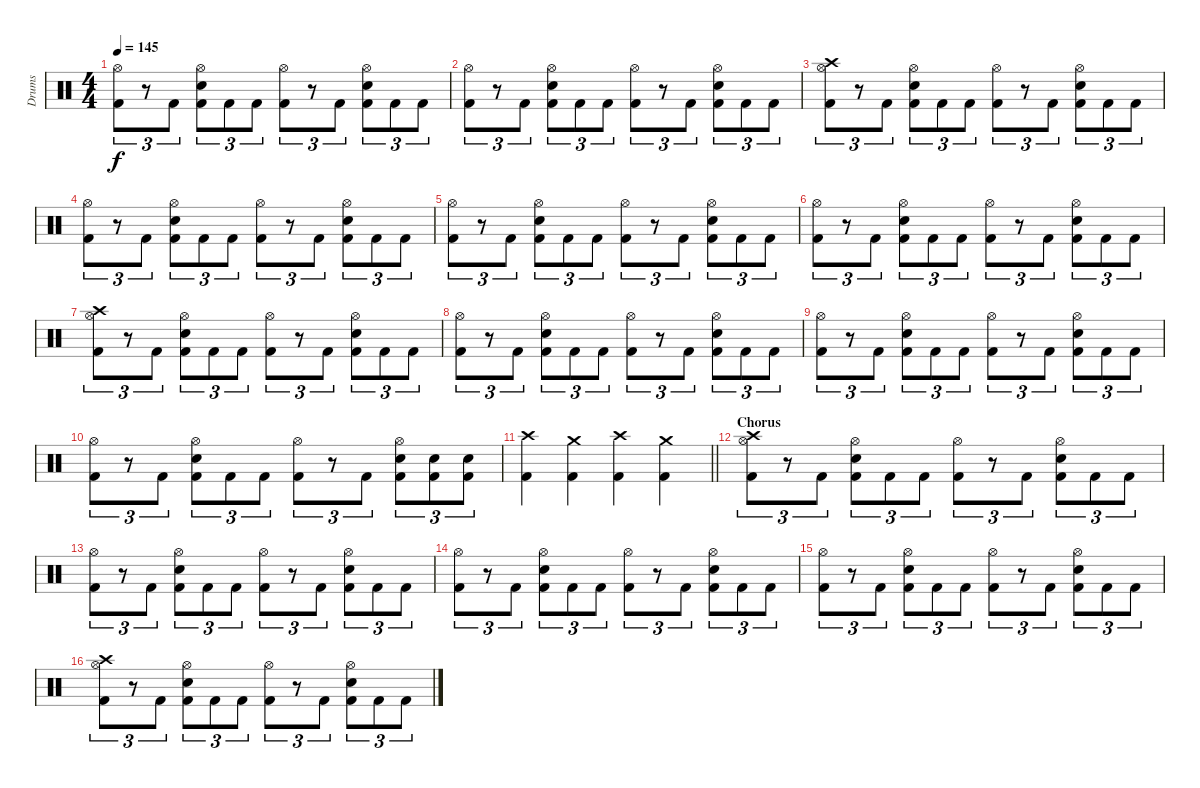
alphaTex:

\track ("Drums" "Drums") {instrument percussion}
\staff {score}
\articulation defaults
\ts (4 4)
\tempo 145
\clef neutral
\ks c
("Hi-Hat (open)" "Kick (hit) 2").8{tu (3 2) dy f} r.8{tu (3 2)} "Kick (hit) 2".8{tu (3 2)} ("Hi-Hat (open)" "Snare (hit) 2" "Kick (hit) 2").8{tu (3 2)} "Kick (hit) 2".8{tu (3 2)} "Kick (hit) 2".8{tu (3 2)} ("Hi-Hat (open)" "Kick (hit) 2").8{tu (3 2)} r.8{tu (3 2)} "Kick (hit) 2".8{tu (3 2)} ("Hi-Hat (open)" "Snare (hit) 2" "Kick (hit) 2").8{tu (3 2)} "Kick (hit) 2".8{tu (3 2)} "Kick (hit) 2".8{tu (3 2)} |
("Hi-Hat (open)" "Kick (hit) 2").8{tu (3 2)} r.8{tu (3 2)} "Kick (hit) 2".8{tu (3 2)} ("Hi-Hat (open)" "Snare (hit) 2" "Kick (hit) 2").8{tu (3 2)} "Kick (hit) 2".8{tu (3 2)} "Kick (hit) 2".8{tu (3 2)} ("Hi-Hat (open)" "Kick (hit) 2").8{tu (3 2)} r.8{tu (3 2)} "Kick (hit) 2".8{tu (3 2)} ("Hi-Hat (open)" "Snare (hit) 2" "Kick (hit) 2").8{tu (3 2)} "Kick (hit) 2".8{tu (3 2)} "Kick (hit) 2".8{tu (3 2)} |
("Crash high (hit)" "Hi-Hat (open)" "Kick (hit) 2").8{tu (3 2)} r.8{tu (3 2)} "Kick (hit) 2".8{tu (3 2)} ("Hi-Hat (open)" "Snare (hit) 2" "Kick (hit) 2").8{tu (3 2)} "Kick (hit) 2".8{tu (3 2)} "Kick (hit) 2".8{tu (3 2)} ("Hi-Hat (open)" "Kick (hit) 2").8{tu (3 2)} r.8{tu (3 2)} "Kick (hit) 2".8{tu (3 2)} ("Hi-Hat (open)" "Snare (hit) 2" "Kick (hit) 2").8{tu (3 2)} "Kick (hit) 2".8{tu (3 2)} "Kick (hit) 2".8{tu (3 2)} |
("Hi-Hat (open)" "Kick (hit) 2").8{tu (3 2)} r.8{tu (3 2)} "Kick (hit) 2".8{tu (3 2)} ("Hi-Hat (open)" "Snare (hit) 2" "Kick (hit) 2").8{tu (3 2)} "Kick (hit) 2".8{tu (3 2)} "Kick (hit) 2".8{tu (3 2)} ("Hi-Hat (open)" "Kick (hit) 2").8{tu (3 2)} r.8{tu (3 2)} "Kick (hit) 2".8{tu (3 2)} ("Hi-Hat (open)" "Snare (hit) 2" "Kick (hit) 2").8{tu (3 2)} "Kick (hit) 2".8{tu (3 2)} "Kick (hit) 2".8{tu (3 2)} |
("Hi-Hat (open)" "Kick (hit) 2").8{tu (3 2)} r.8{tu (3 2)} "Kick (hit) 2".8{tu (3 2)} ("Hi-Hat (open)" "Snare (hit) 2" "Kick (hit) 2").8{tu (3 2)} "Kick (hit) 2".8{tu (3 2)} "Kick (hit) 2".8{tu (3 2)} ("Hi-Hat (open)" "Kick (hit) 2").8{tu (3 2)} r.8{tu (3 2)} "Kick (hit) 2".8{tu (3 2)} ("Hi-Hat (open)" "Snare (hit) 2" "Kick (hit) 2").8{tu (3 2)} "Kick (hit) 2".8{tu (3 2)} "Kick (hit) 2".8{tu (3 2)} |
("Hi-Hat (open)" "Kick (hit) 2").8{tu (3 2)} r.8{tu (3 2)} "Kick (hit) 2".8{tu (3 2)} ("Hi-Hat (open)" "Snare (hit) 2" "Kick (hit) 2").8{tu (3 2)} "Kick (hit) 2".8{tu (3 2)} "Kick (hit) 2".8{tu (3 2)} ("Hi-Hat (open)" "Kick (hit) 2").8{tu (3 2)} r.8{tu (3 2)} "Kick (hit) 2".8{tu (3 2)} ("Hi-Hat (open)" "Snare (hit) 2" "Kick (hit) 2").8{tu (3 2)} "Kick (hit) 2".8{tu (3 2)} "Kick (hit) 2".8{tu (3 2)} |
("Crash high (hit)" "Hi-Hat (open)" "Kick (hit) 2").8{tu (3 2)} r.8{tu (3 2)} "Kick (hit) 2".8{tu (3 2)} ("Hi-Hat (open)" "Snare (hit) 2" "Kick (hit) 2").8{tu (3 2)} "Kick (hit) 2".8{tu (3 2)} "Kick (hit) 2".8{tu (3 2)} ("Hi-Hat (open)" "Kick (hit) 2").8{tu (3 2)} r.8{tu (3 2)} "Kick (hit) 2".8{tu (3 2)} ("Hi-Hat (open)" "Snare (hit) 2" "Kick (hit) 2").8{tu (3 2)} "Kick (hit) 2".8{tu (3 2)} "Kick (hit) 2".8{tu (3 2)} |
("Hi-Hat (open)" "Kick (hit) 2").8{tu (3 2)} r.8{tu (3 2)} "Kick (hit) 2".8{tu (3 2)} ("Hi-Hat (open)" "Snare (hit) 2" "Kick (hit) 2").8{tu (3 2)} "Kick (hit) 2".8{tu (3 2)} "Kick (hit) 2".8{tu (3 2)} ("Hi-Hat (open)" "Kick (hit) 2").8{tu (3 2)} r.8{tu (3 2)} "Kick (hit) 2".8{tu (3 2)} ("Hi-Hat (open)" "Snare (hit) 2" "Kick (hit) 2").8{tu (3 2)} "Kick (hit) 2".8{tu (3 2)} "Kick (hit) 2".8{tu (3 2)} |
("Hi-Hat (open)" "Kick (hit) 2").8{tu (3 2)} r.8{tu (3 2)} "Kick (hit) 2".8{tu (3 2)} ("Hi-Hat (open)" "Snare (hit) 2" "Kick (hit) 2").8{tu (3 2)} "Kick (hit) 2".8{tu (3 2)} "Kick (hit) 2".8{tu (3 2)} ("Hi-Hat (open)" "Kick (hit) 2").8{tu (3 2)} r.8{tu (3 2)} "Kick (hit) 2".8{tu (3 2)} ("Hi-Hat (open)" "Snare (hit) 2" "Kick (hit) 2").8{tu (3 2)} "Kick (hit) 2".8{tu (3 2)} "Kick (hit) 2".8{tu (3 2)} |
("Hi-Hat (open)" "Kick (hit) 2").8{tu (3 2)} r.8{tu (3 2)} "Kick (hit) 2".8{tu (3 2)} ("Hi-Hat (open)" "Snare (hit) 2" "Kick (hit) 2").8{tu (3 2)} "Kick (hit) 2".8{tu (3 2)} "Kick (hit) 2".8{tu (3 2)} ("Hi-Hat (open)" "Kick (hit) 2").8{tu (3 2)} r.8{tu (3 2)} "Kick (hit) 2".8{tu (3 2)} ("Hi-Hat (open)" "Snare (hit) 2" "Kick (hit) 2").8{tu (3 2)} ("Snare (hit) 2" "Kick (hit) 2").8{tu (3 2)} ("Snare (hit) 2" "Kick (hit) 2").8{tu (3 2)} |
\barLineRight lightlight
("Crash high (hit)" "Kick (hit) 2").4 ("Crash medium (hit)" "Kick (hit) 2").4 ("Crash high (hit)" "Kick (hit) 2").4 ("Crash medium (hit)" "Kick (hit) 2").4 |
\section ("" "Chorus")
("Crash high (hit)" "Hi-Hat (open)" "Kick (hit) 2").8{tu (3 2)} r.8{tu (3 2)} "Kick (hit) 2".8{tu (3 2)} ("Hi-Hat (open)" "Snare (hit) 2" "Kick (hit) 2").8{tu (3 2)} "Kick (hit) 2".8{tu (3 2)} "Kick (hit) 2".8{tu (3 2)} ("Hi-Hat (open)" "Kick (hit) 2").8{tu (3 2)} r.8{tu (3 2)} "Kick (hit) 2".8{tu (3 2)} ("Hi-Hat (open)" "Snare (hit) 2" "Kick (hit) 2").8{tu (3 2)} "Kick (hit) 2".8{tu (3 2)} "Kick (hit) 2".8{tu (3 2)} |
("Hi-Hat (open)" "Kick (hit) 2").8{tu (3 2)} r.8{tu (3 2)} "Kick (hit) 2".8{tu (3 2)} ("Hi-Hat (open)" "Snare (hit) 2" "Kick (hit) 2").8{tu (3 2)} "Kick (hit) 2".8{tu (3 2)} "Kick (hit) 2".8{tu (3 2)} ("Hi-Hat (open)" "Kick (hit) 2").8{tu (3 2)} r.8{tu (3 2)} "Kick (hit) 2".8{tu (3 2)} ("Hi-Hat (open)" "Snare (hit) 2" "Kick (hit) 2").8{tu (3 2)} "Kick (hit) 2".8{tu (3 2)} "Kick (hit) 2".8{tu (3 2)} |
("Hi-Hat (open)" "Kick (hit) 2").8{tu (3 2)} r.8{tu (3 2)} "Kick (hit) 2".8{tu (3 2)} ("Hi-Hat (open)" "Snare (hit) 2" "Kick (hit) 2").8{tu (3 2)} "Kick (hit) 2".8{tu (3 2)} "Kick (hit) 2".8{tu (3 2)} ("Hi-Hat (open)" "Kick (hit) 2").8{tu (3 2)} r.8{tu (3 2)} "Kick (hit) 2".8{tu (3 2)} ("Hi-Hat (open)" "Snare (hit) 2" "Kick (hit) 2").8{tu (3 2)} "Kick (hit) 2".8{tu (3 2)} "Kick (hit) 2".8{tu (3 2)} |
("Hi-Hat (open)" "Kick (hit) 2").8{tu (3 2)} r.8{tu (3 2)} "Kick (hit) 2".8{tu (3 2)} ("Hi-Hat (open)" "Snare (hit) 2" "Kick (hit) 2").8{tu (3 2)} "Kick (hit) 2".8{tu (3 2)} "Kick (hit) 2".8{tu (3 2)} ("Hi-Hat (open)" "Kick (hit) 2").8{tu (3 2)} r.8{tu (3 2)} "Kick (hit) 2".8{tu (3 2)} ("Hi-Hat (open)" "Snare (hit) 2" "Kick (hit) 2").8{tu (3 2)} "Kick (hit) 2".8{tu (3 2)} "Kick (hit) 2".8{tu (3 2)} |
("Crash high (hit)" "Hi-Hat (open)" "Kick (hit) 2").8{tu (3 2)} r.8{tu (3 2)} "Kick (hit) 2".8{tu (3 2)} ("Hi-Hat (open)" "Snare (hit) 2" "Kick (hit) 2").8{tu (3 2)} "Kick (hit) 2".8{tu (3 2)} "Kick (hit) 2".8{tu (3 2)} ("Hi-Hat (open)" "Kick (hit) 2").8{tu (3 2)} r.8{tu (3 2)} "Kick (hit) 2".8{tu (3 2)} ("Hi-Hat (open)" "Snare (hit) 2" "Kick (hit) 2").8{tu (3 2)} "Kick (hit) 2".8{tu (3 2)} "Kick (hit) 2".8{tu (3 2)}
